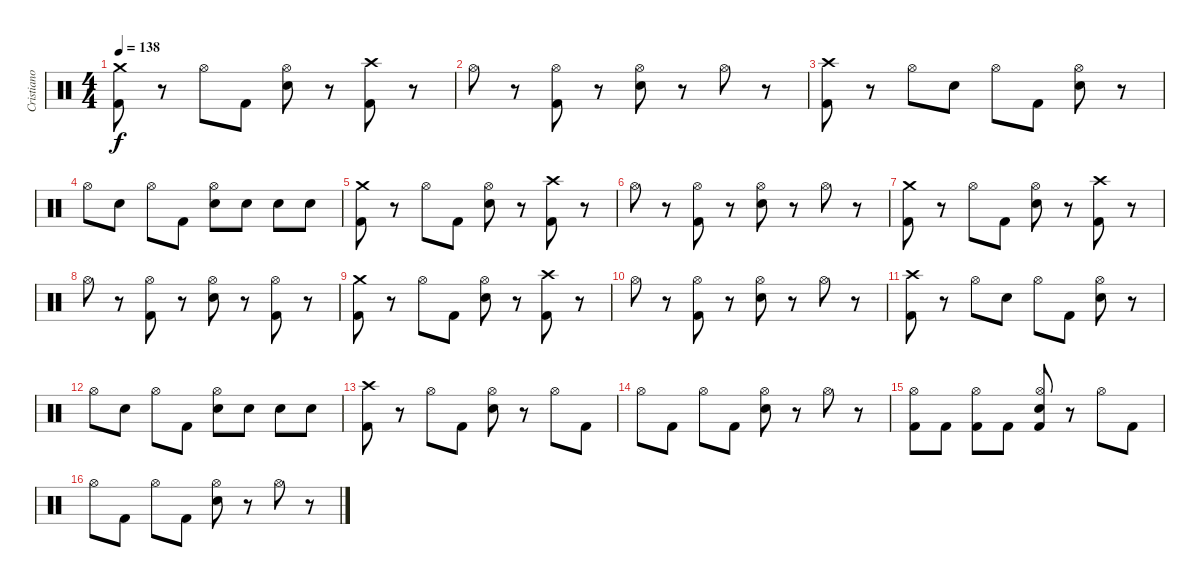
\track ("Cristiano Mozatti" "Cristiano ") {instrument percussion}
\staff {score}
\articulation defaults
\ts (4 4)
\tempo 138
\clef neutral
\ks c
("Crash medium (hit)" "Kick (hit) 2").8{dy f} r.8 "Hi-Hat (open)".8 "Kick (hit) 2".8 ("Hi-Hat (open)" "Snare (hit) 2").8 r.8 ("Crash high (hit)" "Kick (hit) 2").8 r.8 |
"Hi-Hat (open)".8 r.8 ("Hi-Hat (open)" "Kick (hit) 2").8 r.8 ("Hi-Hat (open)" "Snare (hit) 2").8 r.8 "Hi-Hat (open)".8 r.8 |
("Crash high (hit)" "Kick (hit) 2").8 r.8 "Hi-Hat (open)".8 "Snare (hit) 2".8 "Hi-Hat (open)".8 "Kick (hit) 2".8 ("Hi-Hat (open)" "Snare (hit) 2").8 r.8 |
"Hi-Hat (open)".8 "Snare (hit) 2".8 "Hi-Hat (open)".8 "Kick (hit) 2".8 ("Hi-Hat (open)" "Snare (hit) 2").8 "Snare (hit) 2".8 "Snare (hit) 2".8 "Snare (hit) 2".8 |
("Crash medium (hit)" "Kick (hit) 2").8 r.8 "Hi-Hat (open)".8 "Kick (hit) 2".8 ("Hi-Hat (open)" "Snare (hit) 2").8 r.8 ("Crash high (hit)" "Kick (hit) 2").8 r.8 |
"Hi-Hat (open)".8 r.8 ("Hi-Hat (open)" "Kick (hit) 2").8 r.8 ("Hi-Hat (open)" "Snare (hit) 2").8 r.8 "Hi-Hat (open)".8 r.8 |
("Crash medium (hit)" "Kick (hit) 2").8 r.8 "Hi-Hat (open)".8 "Kick (hit) 2".8 ("Hi-Hat (open)" "Snare (hit) 2").8 r.8 ("Crash high (hit)" "Kick (hit) 2").8 r.8 |
"Hi-Hat (open)".8 r.8 ("Hi-Hat (open)" "Kick (hit) 2").8 r.8 ("Hi-Hat (open)" "Snare (hit) 2").8 r.8 ("Hi-Hat (open)" "Kick (hit) 2").8 r.8 |
("Crash medium (hit)" "Kick (hit) 2").8 r.8 "Hi-Hat (open)".8 "Kick (hit) 2".8 ("Hi-Hat (open)" "Snare (hit) 2").8 r.8 ("Crash high (hit)" "Kick (hit) 2").8 r.8 |
"Hi-Hat (open)".8 r.8 ("Hi-Hat (open)" "Kick (hit) 2").8 r.8 ("Hi-Hat (open)" "Snare (hit) 2").8 r.8 "Hi-Hat (open)".8 r.8 |
("Crash high (hit)" "Kick (hit) 2").8 r.8 "Hi-Hat (open)".8 "Snare (hit) 2".8 "Hi-Hat (open)".8 "Kick (hit) 2".8 ("Hi-Hat (open)" "Snare (hit) 2").8 r.8 |
"Hi-Hat (open)".8 "Snare (hit) 2".8 "Hi-Hat (open)".8 "Kick (hit) 2".8 ("Hi-Hat (open)" "Snare (hit) 2").8 "Snare (hit) 2".8 "Snare (hit) 2".8 "Snare (hit) 2".8 |
("Crash high (hit)" "Kick (hit) 2").8 r.8 "Hi-Hat (open)".8 "Kick (hit) 2".8 ("Hi-Hat (open)" "Snare (hit) 2").8 r.8 "Hi-Hat (open)".8 "Kick (hit) 2".8 |
"Hi-Hat (open)".8 "Kick (hit) 2".8 "Hi-Hat (open)".8 "Kick (hit) 2".8 ("Hi-Hat (open)" "Snare (hit) 2").8 r.8 "Hi-Hat (open)".8 r.8 |
("Hi-Hat (open)" "Kick (hit) 2").8 "Kick (hit) 2".8 ("Hi-Hat (open)" "Kick (hit) 2").8 "Kick (hit) 2".8 ("Hi-Hat (open)" "Snare (hit) 2" "Kick (hit) 2").8 r.8 "Hi-Hat (open)".8 "Kick (hit) 2".8 |
"Hi-Hat (open)".8 "Kick (hit) 2".8 "Hi-Hat (open)".8 "Kick (hit) 2".8 ("Hi-Hat (open)" "Snare (hit) 2").8 r.8 "Hi-Hat (open)".8 r.8
